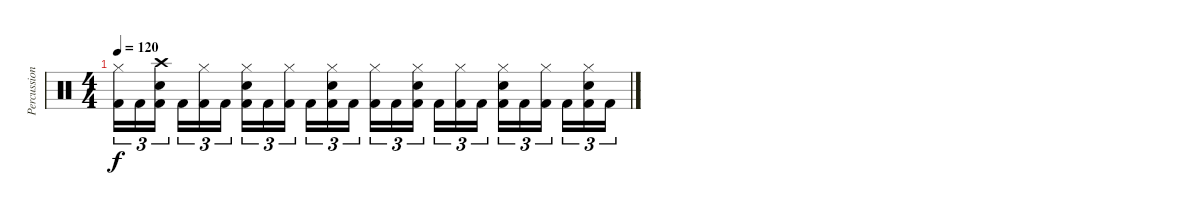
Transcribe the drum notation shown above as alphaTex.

\track ("Percussion" "Percussion") {instrument percussion}
\staff {score}
\articulation defaults
\ts (4 4)
\tempo 120
\clef neutral
\ks c
("Hi-Hat (closed)" "Kick (hit) 2").16{tu (3 2) dy f} "Kick (hit) 2".16{tu (3 2)} ("Crash high (hit)" "Snare (hit) 2" "Kick (hit) 2").16{tu (3 2) beam splitsecondary} "Kick (hit) 2".16{tu (3 2)} ("Hi-Hat (closed)" "Kick (hit) 2").16{tu (3 2)} "Kick (hit) 2".16{tu (3 2)} ("Hi-Hat (closed)" "Snare (hit) 2" "Kick (hit) 2").16{tu (3 2)} "Kick (hit) 2".16{tu (3 2)} ("Hi-Hat (closed)" "Kick (hit) 2").16{tu (3 2) beam splitsecondary} "Kick (hit) 2".16{tu (3 2)} ("Hi-Hat (closed)" "Snare (hit) 2" "Kick (hit) 2").16{tu (3 2)} "Kick (hit) 2".16{tu (3 2)} ("Hi-Hat (closed)" "Kick (hit) 2").16{tu (3 2)} "Kick (hit) 2".16{tu (3 2)} ("Hi-Hat (closed)" "Snare (hit) 2" "Kick (hit) 2").16{tu (3 2) beam splitsecondary} "Kick (hit) 2".16{tu (3 2)} ("Hi-Hat (closed)" "Kick (hit) 2").16{tu (3 2)} "Kick (hit) 2".16{tu (3 2)} ("Hi-Hat (closed)" "Snare (hit) 2" "Kick (hit) 2").16{tu (3 2)} "Kick (hit) 2".16{tu (3 2)} ("Hi-Hat (closed)" "Kick (hit) 2").16{tu (3 2) beam splitsecondary} "Kick (hit) 2".16{tu (3 2)} ("Hi-Hat (closed)" "Snare (hit) 2" "Kick (hit) 2").16{tu (3 2)} "Kick (hit) 2".16{tu (3 2)}
